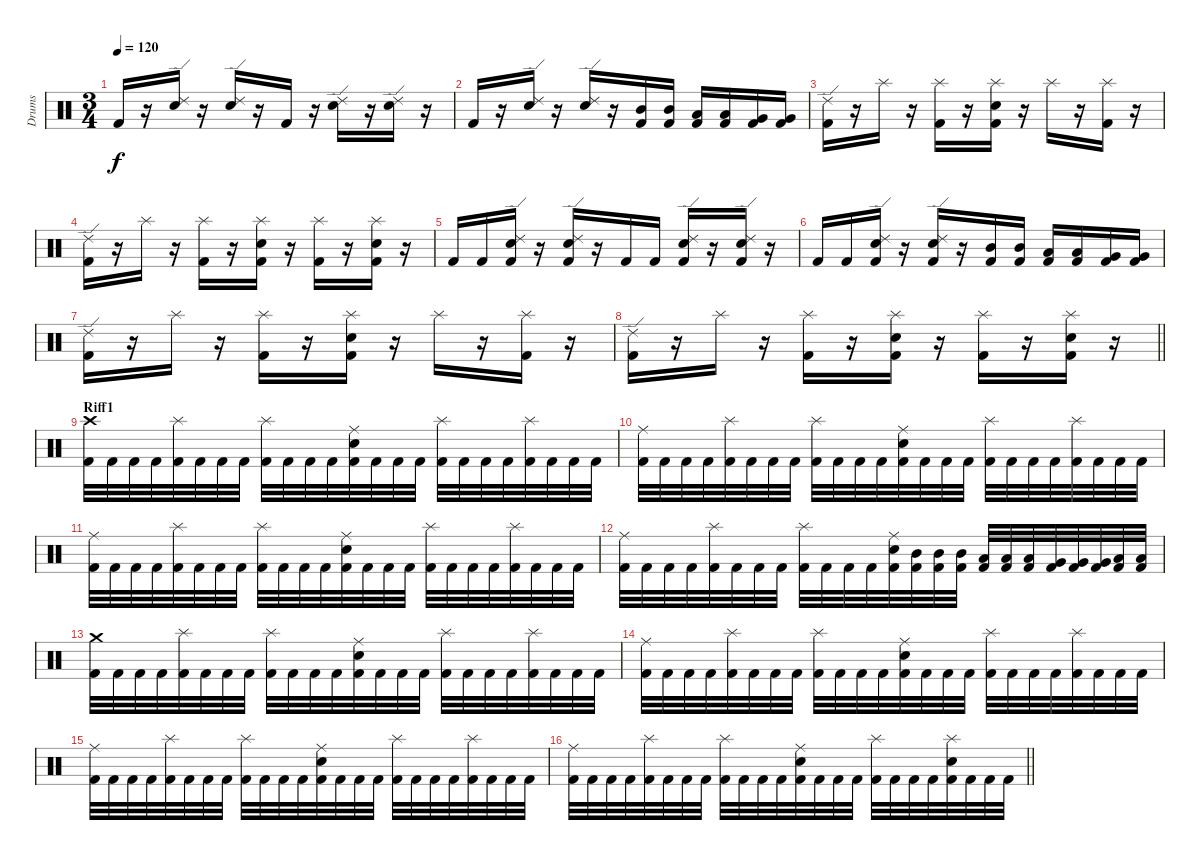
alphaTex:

\track ("Drums" "Drums") {instrument percussion}
\staff {score}
\articulation defaults
\ts (3 4)
\tempo 120
\clef neutral
\ks c "Kick (hit) 2".16{dy f}
r.16 ("Snare (hit) 2" "Ride (edge) 2").16 r.16 ("Snare (hit) 2" "Ride (edge) 2").16 r.16 "Kick (hit) 2".16 r.16 ("Snare (hit) 2" "Ride (edge) 2").16 r.16 ("Snare (hit) 2" "Ride (edge) 2").16 r.16 |
"Kick (hit) 2".16 r.16 ("Snare (hit) 2" "Ride (edge) 2").16 r.16 ("Snare (hit) 2" "Ride (edge) 2").16 r.16 ("Kick (hit) 2" "Mid Tom (hit)").16 ("Kick (hit) 2" "Mid Tom (hit)").16 ("Kick (hit) 2" "Low Tom (hit)").16 ("Kick (hit) 2" "Low Tom (hit)").16 ("Kick (hit) 2" "Very Low Tom (hit)").16 ("Kick (hit) 2" "Very Low Tom (hit)").16 |
("Kick (hit) 2" "Ride (edge) 2").16 r.16 "Splash (hit)".16 r.16 ("Kick (hit) 2" "Splash (hit)").16 r.16 ("Kick (hit) 2" "Splash (hit)" "Snare (hit) 2").16 r.16 "Splash (hit)".16 r.16 ("Kick (hit) 2" "Splash (hit)").16 r.16 |
("Kick (hit) 2" "Ride (edge) 2").16 r.16 "Splash (hit)".16 r.16 ("Kick (hit) 2" "Splash (hit)").16 r.16 ("Kick (hit) 2" "Splash (hit)" "Snare (hit) 2").16 r.16 ("Kick (hit) 2" "Splash (hit)").16 r.16 ("Kick (hit) 2" "Splash (hit)" "Snare (hit) 2").16 r.16 |
"Kick (hit) 2".16 "Kick (hit) 2".16 ("Kick (hit) 2" "Snare (hit) 2" "Ride (edge) 2").16 r.16 ("Kick (hit) 2" "Snare (hit) 2" "Ride (edge) 2").16 r.16 "Kick (hit) 2".16 "Kick (hit) 2".16 ("Kick (hit) 2" "Snare (hit) 2" "Ride (edge) 2").16 r.16 ("Kick (hit) 2" "Snare (hit) 2" "Ride (edge) 2").16 r.16 |
"Kick (hit) 2".16 "Kick (hit) 2".16 ("Kick (hit) 2" "Snare (hit) 2" "Ride (edge) 2").16 r.16 ("Kick (hit) 2" "Snare (hit) 2" "Ride (edge) 2").16 r.16 ("Kick (hit) 2" "Mid Tom (hit)").16 ("Kick (hit) 2" "Mid Tom (hit)").16 ("Kick (hit) 2" "Low Tom (hit)").16 ("Kick (hit) 2" "Low Tom (hit)").16 ("Kick (hit) 2" "Very Low Tom (hit)").16 ("Kick (hit) 2" "Very Low Tom (hit)").16 |
("Kick (hit) 2" "Ride (edge) 2").16 r.16 "Splash (hit)".16 r.16 ("Kick (hit) 2" "Splash (hit)").16 r.16 ("Kick (hit) 2" "Splash (hit)" "Snare (hit) 2").16 r.16 "Splash (hit)".16 r.16 ("Kick (hit) 2" "Splash (hit)").16 r.16 |
\barLineRight lightlight
("Kick (hit) 2" "Ride (edge) 2").16 r.16 "Splash (hit)".16 r.16 ("Kick (hit) 2" "Splash (hit)").16 r.16 ("Kick (hit) 2" "Splash (hit)" "Snare (hit) 2").16 r.16 ("Kick (hit) 2" "Splash (hit)").16 r.16 ("Kick (hit) 2" "Splash (hit)" "Snare (hit) 2").16 r.16 |
\section ("" "Riff1")
("Kick (hit) 2" "Crash high (hit)").32 "Kick (hit) 2".32 "Kick (hit) 2".32 "Kick (hit) 2".32 ("Kick (hit) 2" "Splash (hit)").32 "Kick (hit) 2".32 "Kick (hit) 2".32 "Kick (hit) 2".32 ("Kick (hit) 2" "Splash (hit)").32 "Kick (hit) 2".32 "Kick (hit) 2".32 "Kick (hit) 2".32 ("Kick (hit) 2" "Ride (middle)" "Snare (hit) 2").32 "Kick (hit) 2".32 "Kick (hit) 2".32 "Kick (hit) 2".32 ("Kick (hit) 2" "Splash (hit)").32 "Kick (hit) 2".32 "Kick (hit) 2".32 "Kick (hit) 2".32 ("Kick (hit) 2" "Splash (hit)").32 "Kick (hit) 2".32 "Kick (hit) 2".32 "Kick (hit) 2".32 |
("Kick (hit) 2" "Ride (middle)").32 "Kick (hit) 2".32 "Kick (hit) 2".32 "Kick (hit) 2".32 ("Kick (hit) 2" "Splash (hit)").32 "Kick (hit) 2".32 "Kick (hit) 2".32 "Kick (hit) 2".32 ("Kick (hit) 2" "Splash (hit)").32 "Kick (hit) 2".32 "Kick (hit) 2".32 "Kick (hit) 2".32 ("Kick (hit) 2" "Ride (middle)" "Snare (hit) 2").32 "Kick (hit) 2".32 "Kick (hit) 2".32 "Kick (hit) 2".32 ("Kick (hit) 2" "Splash (hit)").32 "Kick (hit) 2".32 "Kick (hit) 2".32 "Kick (hit) 2".32 ("Kick (hit) 2" "Splash (hit)").32 "Kick (hit) 2".32 "Kick (hit) 2".32 "Kick (hit) 2".32 |
("Kick (hit) 2" "Ride (middle)").32 "Kick (hit) 2".32 "Kick (hit) 2".32 "Kick (hit) 2".32 ("Kick (hit) 2" "Splash (hit)").32 "Kick (hit) 2".32 "Kick (hit) 2".32 "Kick (hit) 2".32 ("Kick (hit) 2" "Splash (hit)").32 "Kick (hit) 2".32 "Kick (hit) 2".32 "Kick (hit) 2".32 ("Kick (hit) 2" "Ride (middle)" "Snare (hit) 2").32 "Kick (hit) 2".32 "Kick (hit) 2".32 "Kick (hit) 2".32 ("Kick (hit) 2" "Splash (hit)").32 "Kick (hit) 2".32 "Kick (hit) 2".32 "Kick (hit) 2".32 ("Kick (hit) 2" "Splash (hit)").32 "Kick (hit) 2".32 "Kick (hit) 2".32 "Kick (hit) 2".32 |
("Kick (hit) 2" "Ride (middle)").32 "Kick (hit) 2".32 "Kick (hit) 2".32 "Kick (hit) 2".32 ("Kick (hit) 2" "Splash (hit)").32 "Kick (hit) 2".32 "Kick (hit) 2".32 "Kick (hit) 2".32 ("Kick (hit) 2" "Splash (hit)").32 "Kick (hit) 2".32 "Kick (hit) 2".32 "Kick (hit) 2".32 ("Kick (hit) 2" "Ride (middle)" "Snare (hit) 2").32 ("Kick (hit) 2" "Mid Tom (hit)").32 ("Kick (hit) 2" "Mid Tom (hit)").32 ("Kick (hit) 2" "Mid Tom (hit)").32 ("Kick (hit) 2" "Low Tom (hit)").32 ("Kick (hit) 2" "Low Tom (hit)").32 ("Kick (hit) 2" "Low Tom (hit)").32 ("Kick (hit) 2" "Very Low Tom (hit)").32 ("Kick (hit) 2" "Very Low Tom (hit)").32 ("Kick (hit) 2" "Very Low Tom (hit)").32 ("Kick (hit) 2" "Low Floor Tom (hit)").32 ("Kick (hit) 2" "Low Floor Tom (hit)").32 |
("Kick (hit) 2" "Crash medium (hit)").32 "Kick (hit) 2".32 "Kick (hit) 2".32 "Kick (hit) 2".32 ("Kick (hit) 2" "Splash (hit)").32 "Kick (hit) 2".32 "Kick (hit) 2".32 "Kick (hit) 2".32 ("Kick (hit) 2" "Splash (hit)").32 "Kick (hit) 2".32 "Kick (hit) 2".32 "Kick (hit) 2".32 ("Kick (hit) 2" "Ride (middle)" "Snare (hit) 2").32 "Kick (hit) 2".32 "Kick (hit) 2".32 "Kick (hit) 2".32 ("Kick (hit) 2" "Splash (hit)").32 "Kick (hit) 2".32 "Kick (hit) 2".32 "Kick (hit) 2".32 ("Kick (hit) 2" "Splash (hit)").32 "Kick (hit) 2".32 "Kick (hit) 2".32 "Kick (hit) 2".32 |
("Kick (hit) 2" "Ride (middle)").32 "Kick (hit) 2".32 "Kick (hit) 2".32 "Kick (hit) 2".32 ("Kick (hit) 2" "Splash (hit)").32 "Kick (hit) 2".32 "Kick (hit) 2".32 "Kick (hit) 2".32 ("Kick (hit) 2" "Splash (hit)").32 "Kick (hit) 2".32 "Kick (hit) 2".32 "Kick (hit) 2".32 ("Kick (hit) 2" "Ride (middle)" "Snare (hit) 2").32 "Kick (hit) 2".32 "Kick (hit) 2".32 "Kick (hit) 2".32 ("Kick (hit) 2" "Splash (hit)").32 "Kick (hit) 2".32 "Kick (hit) 2".32 "Kick (hit) 2".32 ("Kick (hit) 2" "Splash (hit)").32 "Kick (hit) 2".32 "Kick (hit) 2".32 "Kick (hit) 2".32 |
("Kick (hit) 2" "Ride (middle)").32 "Kick (hit) 2".32 "Kick (hit) 2".32 "Kick (hit) 2".32 ("Kick (hit) 2" "Splash (hit)").32 "Kick (hit) 2".32 "Kick (hit) 2".32 "Kick (hit) 2".32 ("Kick (hit) 2" "Splash (hit)").32 "Kick (hit) 2".32 "Kick (hit) 2".32 "Kick (hit) 2".32 ("Kick (hit) 2" "Ride (middle)" "Snare (hit) 2").32 "Kick (hit) 2".32 "Kick (hit) 2".32 "Kick (hit) 2".32 ("Kick (hit) 2" "Splash (hit)").32 "Kick (hit) 2".32 "Kick (hit) 2".32 "Kick (hit) 2".32 ("Kick (hit) 2" "Splash (hit)").32 "Kick (hit) 2".32 "Kick (hit) 2".32 "Kick (hit) 2".32 |
\barLineRight lightlight
("Kick (hit) 2" "Ride (middle)").32 "Kick (hit) 2".32 "Kick (hit) 2".32 "Kick (hit) 2".32 ("Kick (hit) 2" "Splash (hit)").32 "Kick (hit) 2".32 "Kick (hit) 2".32 "Kick (hit) 2".32 ("Kick (hit) 2" "Splash (hit)").32 "Kick (hit) 2".32 "Kick (hit) 2".32 "Kick (hit) 2".32 ("Kick (hit) 2" "Ride (middle)" "Snare (hit) 2").32 "Kick (hit) 2".32 "Kick (hit) 2".32 "Kick (hit) 2".32 ("Kick (hit) 2" "Splash (hit)").32 "Kick (hit) 2".32 "Kick (hit) 2".32 "Kick (hit) 2".32 ("Kick (hit) 2" "Splash (hit)" "Snare (hit) 2").32 "Kick (hit) 2".32 "Kick (hit) 2".32 "Kick (hit) 2".32
